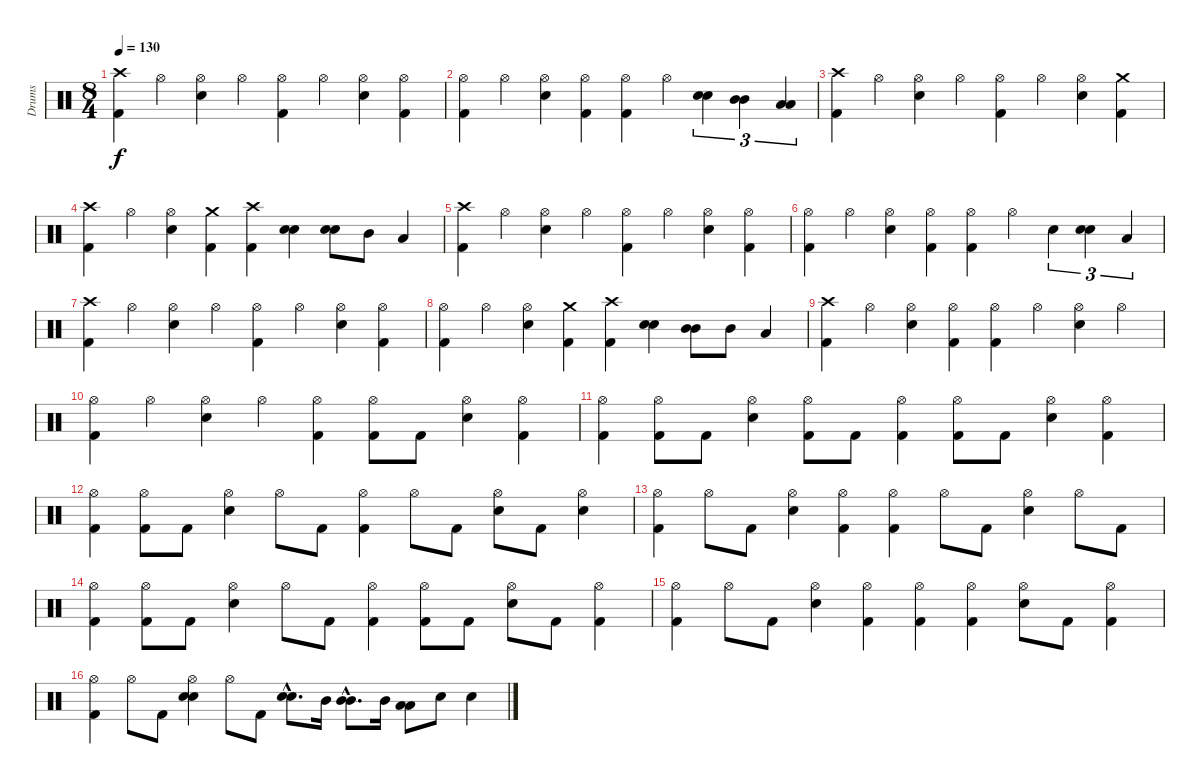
\track ("Drums" "Drums") {instrument percussion}
\staff {score}
\articulation defaults
\ts (8 4)
\tempo 130
\clef neutral
\ks c
("Crash high (hit)" "Kick (hit) 2").4{dy f} "Hi-Hat (open)".4 ("Hi-Hat (open)" "Electric Snare (hit)").4 "Hi-Hat (open)".4 ("Hi-Hat (open)" "Kick (hit) 2").4 "Hi-Hat (open)".4 ("Hi-Hat (open)" "Electric Snare (hit)").4 ("Hi-Hat (open)" "Kick (hit) 2").4 |
("Hi-Hat (open)" "Kick (hit) 2").4 "Hi-Hat (open)".4 ("Hi-Hat (open)" "Electric Snare (hit)").4 ("Hi-Hat (open)" "Kick (hit) 2").4 ("Hi-Hat (open)" "Kick (hit) 2").4 "Hi-Hat (open)".4 ("Electric Snare (hit)" "Electric Snare (hit)").4{tu (3 2) bu 60} ("Mid Tom (hit)" "Mid Tom (hit)").4{tu (3 2) bu 60} ("Low Tom (hit)" "Low Tom (hit)").4{tu (3 2) bu 60} |
("Crash high (hit)" "Kick (hit) 2").4 "Hi-Hat (open)".4 ("Hi-Hat (open)" "Electric Snare (hit)").4 "Hi-Hat (open)".4 ("Hi-Hat (open)" "Kick (hit) 2").4 "Hi-Hat (open)".4 ("Hi-Hat (open)" "Electric Snare (hit)").4 ("Crash medium (hit)" "Kick (hit) 2").4 |
("Crash high (hit)" "Kick (hit) 2").4 "Hi-Hat (open)".4 ("Hi-Hat (open)" "Electric Snare (hit)").4 ("Crash medium (hit)" "Kick (hit) 2").4 ("Crash high (hit)" "Kick (hit) 2").4 ("Electric Snare (hit)" "Electric Snare (hit)").4{bu 60} ("Electric Snare (hit)" "Electric Snare (hit)").8{bu 60} "Mid Tom (hit)".8 "Low Tom (hit)".4 |
("Crash high (hit)" "Kick (hit) 2").4 "Hi-Hat (open)".4 ("Hi-Hat (open)" "Electric Snare (hit)").4 "Hi-Hat (open)".4 ("Hi-Hat (open)" "Kick (hit) 2").4 "Hi-Hat (open)".4 ("Hi-Hat (open)" "Electric Snare (hit)").4 ("Hi-Hat (open)" "Kick (hit) 2").4 |
("Hi-Hat (open)" "Kick (hit) 2").4 "Hi-Hat (open)".4 ("Hi-Hat (open)" "Electric Snare (hit)").4 ("Hi-Hat (open)" "Kick (hit) 2").4 ("Hi-Hat (open)" "Kick (hit) 2").4 "Hi-Hat (open)".4 "Electric Snare (hit)".4{tu (3 2)} ("Electric Snare (hit)" "Electric Snare (hit)").4{tu (3 2) bu 60} "Low Tom (hit)".4{tu (3 2)} |
("Crash high (hit)" "Kick (hit) 2").4 "Hi-Hat (open)".4 ("Hi-Hat (open)" "Electric Snare (hit)").4 "Hi-Hat (open)".4 ("Hi-Hat (open)" "Kick (hit) 2").4 "Hi-Hat (open)".4 ("Hi-Hat (open)" "Electric Snare (hit)").4 ("Hi-Hat (open)" "Kick (hit) 2").4 |
("Hi-Hat (open)" "Kick (hit) 2").4 "Hi-Hat (open)".4 ("Hi-Hat (open)" "Electric Snare (hit)").4 ("Crash medium (hit)" "Kick (hit) 2").4 ("Crash high (hit)" "Kick (hit) 2").4 ("Electric Snare (hit)" "Electric Snare (hit)").4{bu 60} ("Mid Tom (hit)" "Mid Tom (hit)").8{bu 60} "Mid Tom (hit)".8 "Low Tom (hit)".4 |
("Crash high (hit)" "Kick (hit) 2").4 "Hi-Hat (open)".4 ("Hi-Hat (open)" "Electric Snare (hit)").4 ("Hi-Hat (open)" "Kick (hit) 2").4 ("Hi-Hat (open)" "Kick (hit) 2").4 "Hi-Hat (open)".4 ("Hi-Hat (open)" "Electric Snare (hit)").4 "Hi-Hat (open)".4 |
("Hi-Hat (open)" "Kick (hit) 2").4 "Hi-Hat (open)".4 ("Hi-Hat (open)" "Electric Snare (hit)").4 "Hi-Hat (open)".4 ("Hi-Hat (open)" "Kick (hit) 2").4 ("Hi-Hat (open)" "Kick (hit) 2").8 "Kick (hit) 2".8 ("Hi-Hat (open)" "Electric Snare (hit)").4 ("Hi-Hat (open)" "Kick (hit) 2").4 |
("Hi-Hat (open)" "Kick (hit) 2").4 ("Hi-Hat (open)" "Kick (hit) 2").8 "Kick (hit) 2".8 ("Hi-Hat (open)" "Electric Snare (hit)").4 ("Hi-Hat (open)" "Kick (hit) 2").8 "Kick (hit) 2".8 ("Hi-Hat (open)" "Kick (hit) 2").4 ("Hi-Hat (open)" "Kick (hit) 2").8 "Kick (hit) 2".8 ("Hi-Hat (open)" "Electric Snare (hit)").4 ("Hi-Hat (open)" "Kick (hit) 2").4 |
("Hi-Hat (open)" "Kick (hit) 2").4 ("Hi-Hat (open)" "Kick (hit) 2").8 "Kick (hit) 2".8 ("Hi-Hat (open)" "Electric Snare (hit)").4 "Hi-Hat (open)".8 "Kick (hit) 2".8 ("Hi-Hat (open)" "Kick (hit) 2").4 "Hi-Hat (open)".8 "Kick (hit) 2".8 ("Hi-Hat (open)" "Electric Snare (hit)").8 "Kick (hit) 2".8 ("Hi-Hat (open)" "Electric Snare (hit)").4 |
("Hi-Hat (open)" "Kick (hit) 2").4 "Hi-Hat (open)".8 "Kick (hit) 2".8 ("Hi-Hat (open)" "Electric Snare (hit)").4 ("Hi-Hat (open)" "Kick (hit) 2").4 ("Hi-Hat (open)" "Kick (hit) 2").4 "Hi-Hat (open)".8 "Kick (hit) 2".8 ("Hi-Hat (open)" "Electric Snare (hit)").4 "Hi-Hat (open)".8 "Kick (hit) 2".8 |
("Hi-Hat (open)" "Kick (hit) 2").4 ("Hi-Hat (open)" "Kick (hit) 2").8 "Kick (hit) 2".8 ("Hi-Hat (open)" "Electric Snare (hit)").4 "Hi-Hat (open)".8 "Kick (hit) 2".8 ("Hi-Hat (open)" "Kick (hit) 2").4 ("Hi-Hat (open)" "Kick (hit) 2").8 "Kick (hit) 2".8 ("Hi-Hat (open)" "Electric Snare (hit)").8 "Kick (hit) 2".8 ("Hi-Hat (open)" "Kick (hit) 2").4 |
("Hi-Hat (open)" "Kick (hit) 2").4 "Hi-Hat (open)".8 "Kick (hit) 2".8 ("Hi-Hat (open)" "Electric Snare (hit)").4 ("Hi-Hat (open)" "Kick (hit) 2").4 ("Hi-Hat (open)" "Kick (hit) 2").4 ("Hi-Hat (open)" "Kick (hit) 2").4 ("Hi-Hat (open)" "Electric Snare (hit)").8 "Kick (hit) 2".8 ("Hi-Hat (open)" "Kick (hit) 2").4 |
("Hi-Hat (open)" "Kick (hit) 2").4 "Hi-Hat (open)".8 "Kick (hit) 2".8 ("Hi-Hat (open)" "Electric Snare (hit)" "Electric Snare (hit)").4{bu 60} "Hi-Hat (open)".8 "Kick (hit) 2".8 ("Electric Snare (hit)"{hac} "Electric Snare (hit)"{hac}).8{d bu 60} "Mid Tom (hit)".16 ("Mid Tom (hit)"{hac} "Mid Tom (hit)"{hac}).8{d bu 60} "Mid Tom (hit)".16 ("Low Tom (hit)" "Low Tom (hit)").8{bu 60} "Electric Snare (hit)".8 "Electric Snare (hit)".4
